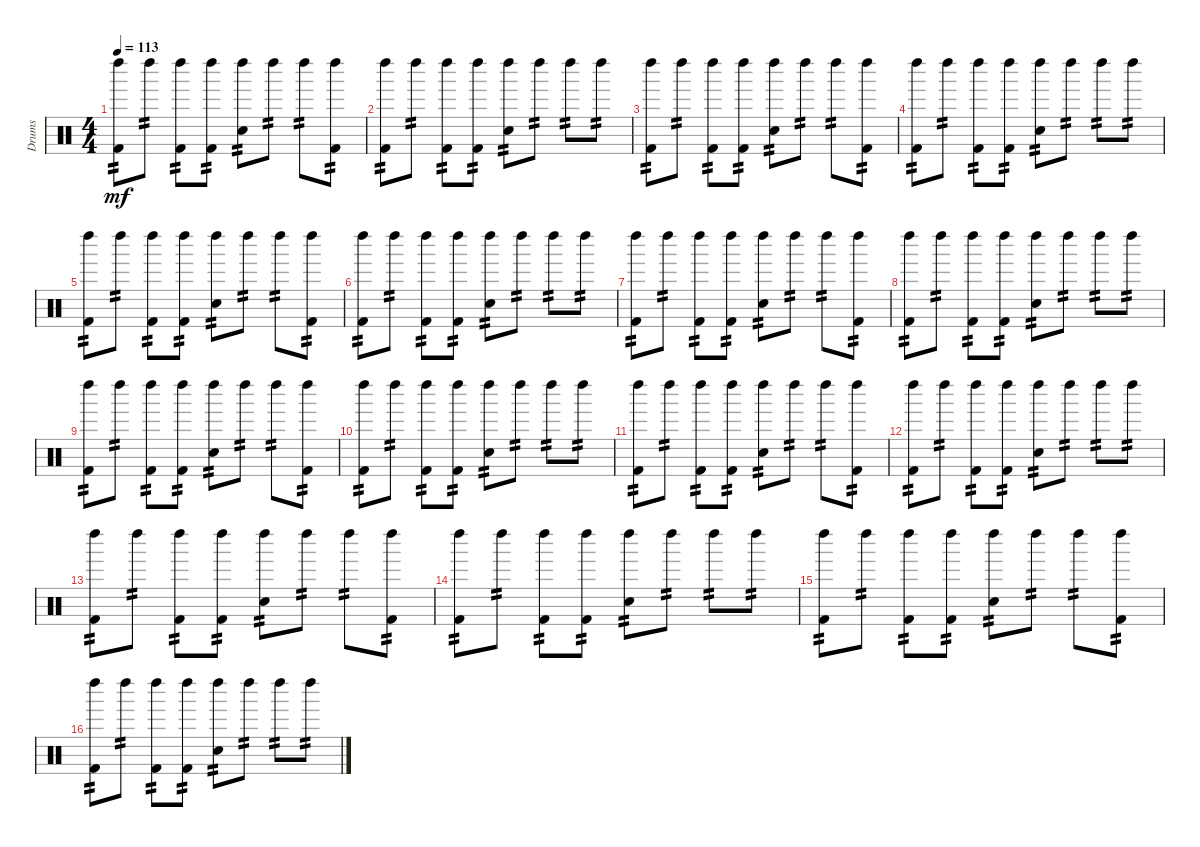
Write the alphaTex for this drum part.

\track ("Drums" "Drums") {instrument percussion}
\staff {score}
\articulation defaults
\ts (4 4)
\tempo 113
\clef neutral
\ks c
("Left Maraca (hit)" "Kick (hit) 2").8{tp 2 dy mf} "Left Maraca (hit)".8{tp 2} ("Left Maraca (hit)" "Kick (hit) 2").8{tp 2} ("Left Maraca (hit)" "Kick (hit) 2").8{tp 2} ("Left Maraca (hit)" "Snare (hit) 2").8{tp 2} "Left Maraca (hit)".8{tp 2} "Left Maraca (hit)".8{tp 2} ("Left Maraca (hit)" "Kick (hit) 2").8{tp 2} |
("Left Maraca (hit)" "Kick (hit) 2").8{tp 2} "Left Maraca (hit)".8{tp 2} ("Left Maraca (hit)" "Kick (hit) 2").8{tp 2} ("Left Maraca (hit)" "Kick (hit) 2").8{tp 2} ("Left Maraca (hit)" "Snare (hit) 2").8{tp 2} "Left Maraca (hit)".8{tp 2} "Left Maraca (hit)".8{tp 2} "Left Maraca (hit)".8{tp 2} |
("Left Maraca (hit)" "Kick (hit) 2").8{tp 2} "Left Maraca (hit)".8{tp 2} ("Left Maraca (hit)" "Kick (hit) 2").8{tp 2} ("Left Maraca (hit)" "Kick (hit) 2").8{tp 2} ("Left Maraca (hit)" "Snare (hit) 2").8{tp 2} "Left Maraca (hit)".8{tp 2} "Left Maraca (hit)".8{tp 2} ("Left Maraca (hit)" "Kick (hit) 2").8{tp 2} |
("Left Maraca (hit)" "Kick (hit) 2").8{tp 2} "Left Maraca (hit)".8{tp 2} ("Left Maraca (hit)" "Kick (hit) 2").8{tp 2} ("Left Maraca (hit)" "Kick (hit) 2").8{tp 2} ("Left Maraca (hit)" "Snare (hit) 2").8{tp 2} "Left Maraca (hit)".8{tp 2} "Left Maraca (hit)".8{tp 2} "Left Maraca (hit)".8{tp 2} |
("Left Maraca (hit)" "Kick (hit) 2").8{tp 2} "Left Maraca (hit)".8{tp 2} ("Left Maraca (hit)" "Kick (hit) 2").8{tp 2} ("Left Maraca (hit)" "Kick (hit) 2").8{tp 2} ("Left Maraca (hit)" "Snare (hit) 2").8{tp 2} "Left Maraca (hit)".8{tp 2} "Left Maraca (hit)".8{tp 2} ("Left Maraca (hit)" "Kick (hit) 2").8{tp 2} |
("Left Maraca (hit)" "Kick (hit) 2").8{tp 2} "Left Maraca (hit)".8{tp 2} ("Left Maraca (hit)" "Kick (hit) 2").8{tp 2} ("Left Maraca (hit)" "Kick (hit) 2").8{tp 2} ("Left Maraca (hit)" "Snare (hit) 2").8{tp 2} "Left Maraca (hit)".8{tp 2} "Left Maraca (hit)".8{tp 2} "Left Maraca (hit)".8{tp 2} |
("Left Maraca (hit)" "Kick (hit) 2").8{tp 2} "Left Maraca (hit)".8{tp 2} ("Left Maraca (hit)" "Kick (hit) 2").8{tp 2} ("Left Maraca (hit)" "Kick (hit) 2").8{tp 2} ("Left Maraca (hit)" "Snare (hit) 2").8{tp 2} "Left Maraca (hit)".8{tp 2} "Left Maraca (hit)".8{tp 2} ("Left Maraca (hit)" "Kick (hit) 2").8{tp 2} |
("Left Maraca (hit)" "Kick (hit) 2").8{tp 2} "Left Maraca (hit)".8{tp 2} ("Left Maraca (hit)" "Kick (hit) 2").8{tp 2} ("Left Maraca (hit)" "Kick (hit) 2").8{tp 2} ("Left Maraca (hit)" "Snare (hit) 2").8{tp 2} "Left Maraca (hit)".8{tp 2} "Left Maraca (hit)".8{tp 2} "Left Maraca (hit)".8{tp 2} |
("Left Maraca (hit)" "Kick (hit) 2").8{tp 2} "Left Maraca (hit)".8{tp 2} ("Left Maraca (hit)" "Kick (hit) 2").8{tp 2} ("Left Maraca (hit)" "Kick (hit) 2").8{tp 2} ("Left Maraca (hit)" "Snare (hit) 2").8{tp 2} "Left Maraca (hit)".8{tp 2} "Left Maraca (hit)".8{tp 2} ("Left Maraca (hit)" "Kick (hit) 2").8{tp 2} |
("Left Maraca (hit)" "Kick (hit) 2").8{tp 2} "Left Maraca (hit)".8{tp 2} ("Left Maraca (hit)" "Kick (hit) 2").8{tp 2} ("Left Maraca (hit)" "Kick (hit) 2").8{tp 2} ("Left Maraca (hit)" "Snare (hit) 2").8{tp 2} "Left Maraca (hit)".8{tp 2} "Left Maraca (hit)".8{tp 2} "Left Maraca (hit)".8{tp 2} |
("Left Maraca (hit)" "Kick (hit) 2").8{tp 2} "Left Maraca (hit)".8{tp 2} ("Left Maraca (hit)" "Kick (hit) 2").8{tp 2} ("Left Maraca (hit)" "Kick (hit) 2").8{tp 2} ("Left Maraca (hit)" "Snare (hit) 2").8{tp 2} "Left Maraca (hit)".8{tp 2} "Left Maraca (hit)".8{tp 2} ("Left Maraca (hit)" "Kick (hit) 2").8{tp 2} |
("Left Maraca (hit)" "Kick (hit) 2").8{tp 2} "Left Maraca (hit)".8{tp 2} ("Left Maraca (hit)" "Kick (hit) 2").8{tp 2} ("Left Maraca (hit)" "Kick (hit) 2").8{tp 2} ("Left Maraca (hit)" "Snare (hit) 2").8{tp 2} "Left Maraca (hit)".8{tp 2} "Left Maraca (hit)".8{tp 2} "Left Maraca (hit)".8{tp 2} |
("Left Maraca (hit)" "Kick (hit) 2").8{tp 2} "Left Maraca (hit)".8{tp 2} ("Left Maraca (hit)" "Kick (hit) 2").8{tp 2} ("Left Maraca (hit)" "Kick (hit) 2").8{tp 2} ("Left Maraca (hit)" "Snare (hit) 2").8{tp 2} "Left Maraca (hit)".8{tp 2} "Left Maraca (hit)".8{tp 2} ("Left Maraca (hit)" "Kick (hit) 2").8{tp 2} |
("Left Maraca (hit)" "Kick (hit) 2").8{tp 2} "Left Maraca (hit)".8{tp 2} ("Left Maraca (hit)" "Kick (hit) 2").8{tp 2} ("Left Maraca (hit)" "Kick (hit) 2").8{tp 2} ("Left Maraca (hit)" "Snare (hit) 2").8{tp 2} "Left Maraca (hit)".8{tp 2} "Left Maraca (hit)".8{tp 2} "Left Maraca (hit)".8{tp 2} |
("Left Maraca (hit)" "Kick (hit) 2").8{tp 2} "Left Maraca (hit)".8{tp 2} ("Left Maraca (hit)" "Kick (hit) 2").8{tp 2} ("Left Maraca (hit)" "Kick (hit) 2").8{tp 2} ("Left Maraca (hit)" "Snare (hit) 2").8{tp 2} "Left Maraca (hit)".8{tp 2} "Left Maraca (hit)".8{tp 2} ("Left Maraca (hit)" "Kick (hit) 2").8{tp 2} |
("Left Maraca (hit)" "Kick (hit) 2").8{tp 2} "Left Maraca (hit)".8{tp 2} ("Left Maraca (hit)" "Kick (hit) 2").8{tp 2} ("Left Maraca (hit)" "Kick (hit) 2").8{tp 2} ("Left Maraca (hit)" "Snare (hit) 2").8{tp 2} "Left Maraca (hit)".8{tp 2} "Left Maraca (hit)".8{tp 2} "Left Maraca (hit)".8{tp 2}
